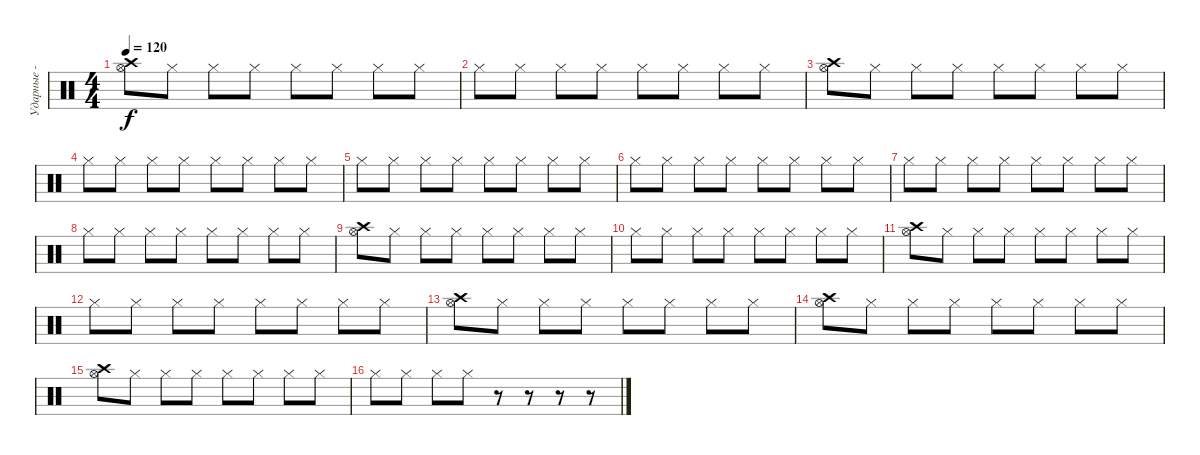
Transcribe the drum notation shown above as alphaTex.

\track ("Ударные - 2" "Ударные - ") {instrument percussion}
\staff {score}
\articulation defaults
\ts (4 4)
\tempo 120
\clef neutral
\ks c
("Hi-Hat (open)" "Crash high (hit)").8{dy f} "Hi-Hat (closed)".8 "Hi-Hat (closed)".8 "Hi-Hat (closed)".8 "Hi-Hat (closed)".8 "Hi-Hat (closed)".8 "Hi-Hat (closed)".8 "Hi-Hat (closed)".8 |
"Hi-Hat (closed)".8 "Hi-Hat (closed)".8 "Hi-Hat (closed)".8 "Hi-Hat (closed)".8 "Hi-Hat (closed)".8 "Hi-Hat (closed)".8 "Hi-Hat (closed)".8 "Hi-Hat (closed)".8 |
("Hi-Hat (open)" "Crash high (hit)").8 "Hi-Hat (closed)".8 "Hi-Hat (closed)".8 "Hi-Hat (closed)".8 "Hi-Hat (closed)".8 "Hi-Hat (closed)".8 "Hi-Hat (closed)".8 "Hi-Hat (closed)".8 |
"Hi-Hat (closed)".8 "Hi-Hat (closed)".8 "Hi-Hat (closed)".8 "Hi-Hat (closed)".8 "Hi-Hat (closed)".8 "Hi-Hat (closed)".8 "Hi-Hat (closed)".8 "Hi-Hat (closed)".8 |
"Hi-Hat (closed)".8 "Hi-Hat (closed)".8 "Hi-Hat (closed)".8 "Hi-Hat (closed)".8 "Hi-Hat (closed)".8 "Hi-Hat (closed)".8 "Hi-Hat (closed)".8 "Hi-Hat (closed)".8 |
"Hi-Hat (closed)".8 "Hi-Hat (closed)".8 "Hi-Hat (closed)".8 "Hi-Hat (closed)".8 "Hi-Hat (closed)".8 "Hi-Hat (closed)".8 "Hi-Hat (closed)".8 "Hi-Hat (closed)".8 |
"Hi-Hat (closed)".8 "Hi-Hat (closed)".8 "Hi-Hat (closed)".8 "Hi-Hat (closed)".8 "Hi-Hat (closed)".8 "Hi-Hat (closed)".8 "Hi-Hat (closed)".8 "Hi-Hat (closed)".8 |
"Hi-Hat (closed)".8 "Hi-Hat (closed)".8 "Hi-Hat (closed)".8 "Hi-Hat (closed)".8 "Hi-Hat (closed)".8 "Hi-Hat (closed)".8 "Hi-Hat (closed)".8 "Hi-Hat (closed)".8 |
("Hi-Hat (open)" "Crash high (hit)").8 "Hi-Hat (closed)".8 "Hi-Hat (closed)".8 "Hi-Hat (closed)".8 "Hi-Hat (closed)".8 "Hi-Hat (closed)".8 "Hi-Hat (closed)".8 "Hi-Hat (closed)".8 |
"Hi-Hat (closed)".8 "Hi-Hat (closed)".8 "Hi-Hat (closed)".8 "Hi-Hat (closed)".8 "Hi-Hat (closed)".8 "Hi-Hat (closed)".8 "Hi-Hat (closed)".8 "Hi-Hat (closed)".8 |
("Crash high (hit)" "Hi-Hat (open)").8 "Hi-Hat (closed)".8 "Hi-Hat (closed)".8 "Hi-Hat (closed)".8 "Hi-Hat (closed)".8 "Hi-Hat (closed)".8 "Hi-Hat (closed)".8 "Hi-Hat (closed)".8 |
"Hi-Hat (closed)".8 "Hi-Hat (closed)".8 "Hi-Hat (closed)".8 "Hi-Hat (closed)".8 "Hi-Hat (closed)".8 "Hi-Hat (closed)".8 "Hi-Hat (closed)".8 "Hi-Hat (closed)".8 |
("Crash high (hit)" "Hi-Hat (open)").8 "Hi-Hat (closed)".8 "Hi-Hat (closed)".8 "Hi-Hat (closed)".8 "Hi-Hat (closed)".8 "Hi-Hat (closed)".8 "Hi-Hat (closed)".8 "Hi-Hat (closed)".8 |
("Crash high (hit)" "Hi-Hat (open)").8 "Hi-Hat (closed)".8 "Hi-Hat (closed)".8 "Hi-Hat (closed)".8 "Hi-Hat (closed)".8 "Hi-Hat (closed)".8 "Hi-Hat (closed)".8 "Hi-Hat (closed)".8 |
("Crash high (hit)" "Hi-Hat (open)").8 "Hi-Hat (closed)".8 "Hi-Hat (closed)".8 "Hi-Hat (closed)".8 "Hi-Hat (closed)".8 "Hi-Hat (closed)".8 "Hi-Hat (closed)".8 "Hi-Hat (closed)".8 |
"Hi-Hat (closed)".8 "Hi-Hat (closed)".8 "Hi-Hat (closed)".8 "Hi-Hat (closed)".8 r.8 r.8 r.8 r.8
